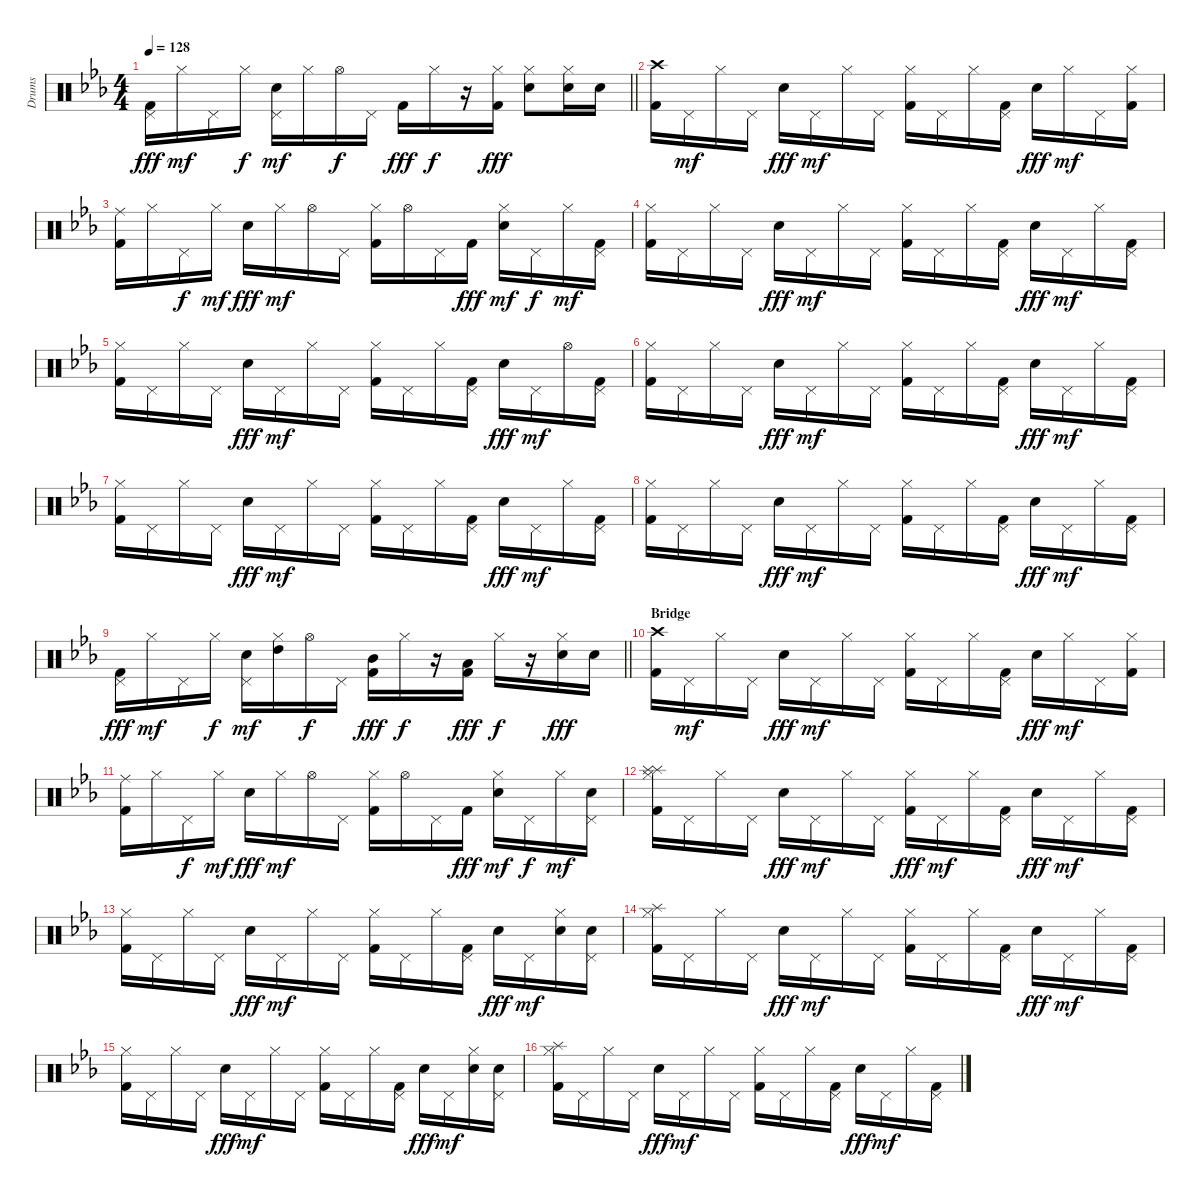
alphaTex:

\track ("Drums" "Drums") {instrument percussion}
\staff {score}
\articulation defaults
\ts (4 4)
\tempo 128
\clef neutral
\barLineRight lightlight
\ks cminor
("Kick (hit) 2" "Pedal Hi-Hat (hit)").16{dy fff} "Hi-Hat (closed)".16{dy mf} "Pedal Hi-Hat (hit)".16 "Hi-Hat (closed)".16{dy f} ("Electric Snare (hit)" "Pedal Hi-Hat (hit)").16{dy mf} "Hi-Hat (closed)".16 "Hi-Hat (open)".16{dy f} "Pedal Hi-Hat (hit)".16 "Kick (hit) 2".16{dy fff} "Hi-Hat (closed)".16{dy f} r.16 ("Kick (hit) 2" "Hi-Hat (closed)").16{dy fff} ("Electric Snare (hit)" "Hi-Hat (closed)").8 ("Electric Snare (hit)" "Hi-Hat (closed)").16 "Electric Snare (hit)".16 |
("Kick (hit) 2" "Crash high (hit)").16 "Pedal Hi-Hat (hit)".16{dy mf} "Hi-Hat (closed)".16 "Pedal Hi-Hat (hit)".16 "Electric Snare (hit)".16{dy fff} "Pedal Hi-Hat (hit)".16{dy mf} "Hi-Hat (closed)".16 "Pedal Hi-Hat (hit)".16 ("Kick (hit) 2" "Hi-Hat (closed)").16 "Pedal Hi-Hat (hit)".16 "Hi-Hat (closed)".16 ("Kick (hit) 2" "Pedal Hi-Hat (hit)").16 "Electric Snare (hit)".16{dy fff} "Hi-Hat (closed)".16{dy mf} "Pedal Hi-Hat (hit)".16 ("Kick (hit) 2" "Hi-Hat (closed)").16 |
("Kick (hit) 2" "Ride (middle)").16 "Hi-Hat (closed)".16 "Pedal Hi-Hat (hit)".16{dy f} "Hi-Hat (closed)".16{dy mf} "Electric Snare (hit)".16{dy fff} "Hi-Hat (closed)".16{dy mf} "Hi-Hat (open)".16 "Pedal Hi-Hat (hit)".16 ("Kick (hit) 2" "Hi-Hat (closed)").16 "Hi-Hat (open)".16 "Pedal Hi-Hat (hit)".16 "Kick (hit) 2".16{dy fff} ("Electric Snare (hit)" "Hi-Hat (closed)").16{dy mf} "Pedal Hi-Hat (hit)".16{dy f} "Hi-Hat (closed)".16{dy mf} ("Kick (hit) 2" "Pedal Hi-Hat (hit)").16 |
("Kick (hit) 2" "Hi-Hat (closed)").16 "Pedal Hi-Hat (hit)".16 "Hi-Hat (closed)".16 "Pedal Hi-Hat (hit)".16 "Electric Snare (hit)".16{dy fff} "Pedal Hi-Hat (hit)".16{dy mf} "Hi-Hat (closed)".16 "Pedal Hi-Hat (hit)".16 ("Kick (hit) 2" "Hi-Hat (closed)").16 "Pedal Hi-Hat (hit)".16 "Hi-Hat (closed)".16 ("Kick (hit) 2" "Pedal Hi-Hat (hit)").16 "Electric Snare (hit)".16{dy fff} "Pedal Hi-Hat (hit)".16{dy mf} "Hi-Hat (closed)".16 ("Kick (hit) 2" "Pedal Hi-Hat (hit)").16 |
("Kick (hit) 2" "Hi-Hat (closed)").16 "Pedal Hi-Hat (hit)".16 "Hi-Hat (closed)".16 "Pedal Hi-Hat (hit)".16 "Electric Snare (hit)".16{dy fff} "Pedal Hi-Hat (hit)".16{dy mf} "Hi-Hat (closed)".16 "Pedal Hi-Hat (hit)".16 ("Kick (hit) 2" "Hi-Hat (closed)").16 "Pedal Hi-Hat (hit)".16 "Hi-Hat (closed)".16 ("Kick (hit) 2" "Pedal Hi-Hat (hit)").16 "Electric Snare (hit)".16{dy fff} "Pedal Hi-Hat (hit)".16{dy mf} "Hi-Hat (open)".16 ("Kick (hit) 2" "Pedal Hi-Hat (hit)").16 |
("Kick (hit) 2" "Hi-Hat (closed)").16 "Pedal Hi-Hat (hit)".16 "Hi-Hat (closed)".16 "Pedal Hi-Hat (hit)".16 "Electric Snare (hit)".16{dy fff} "Pedal Hi-Hat (hit)".16{dy mf} "Hi-Hat (closed)".16 "Pedal Hi-Hat (hit)".16 ("Kick (hit) 2" "Hi-Hat (closed)").16 "Pedal Hi-Hat (hit)".16 "Hi-Hat (closed)".16 ("Kick (hit) 2" "Pedal Hi-Hat (hit)").16 "Electric Snare (hit)".16{dy fff} "Pedal Hi-Hat (hit)".16{dy mf} "Hi-Hat (closed)".16 ("Kick (hit) 2" "Pedal Hi-Hat (hit)").16 |
("Kick (hit) 2" "Hi-Hat (closed)").16 "Pedal Hi-Hat (hit)".16 "Hi-Hat (closed)".16 "Pedal Hi-Hat (hit)".16 "Electric Snare (hit)".16{dy fff} "Pedal Hi-Hat (hit)".16{dy mf} "Hi-Hat (closed)".16 "Pedal Hi-Hat (hit)".16 ("Kick (hit) 2" "Hi-Hat (closed)").16 "Pedal Hi-Hat (hit)".16 "Hi-Hat (closed)".16 ("Kick (hit) 2" "Pedal Hi-Hat (hit)").16 "Electric Snare (hit)".16{dy fff} "Pedal Hi-Hat (hit)".16{dy mf} "Hi-Hat (closed)".16 ("Kick (hit) 2" "Pedal Hi-Hat (hit)").16 |
("Kick (hit) 2" "Hi-Hat (closed)").16 "Pedal Hi-Hat (hit)".16 "Hi-Hat (closed)".16 "Pedal Hi-Hat (hit)".16 "Electric Snare (hit)".16{dy fff} "Pedal Hi-Hat (hit)".16{dy mf} "Hi-Hat (closed)".16 "Pedal Hi-Hat (hit)".16 ("Kick (hit) 2" "Hi-Hat (closed)").16 "Pedal Hi-Hat (hit)".16 "Hi-Hat (closed)".16 ("Kick (hit) 2" "Pedal Hi-Hat (hit)").16 "Electric Snare (hit)".16{dy fff} "Pedal Hi-Hat (hit)".16{dy mf} "Hi-Hat (closed)".16 ("Kick (hit) 2" "Pedal Hi-Hat (hit)").16 |
\barLineRight lightlight
("Kick (hit) 2" "Pedal Hi-Hat (hit)").16{dy fff} "Hi-Hat (closed)".16{dy mf} "Pedal Hi-Hat (hit)".16 "Hi-Hat (closed)".16{dy f} ("Electric Snare (hit)" "Pedal Hi-Hat (hit)").16{dy mf} ("High Tom (hit)" "Hi-Hat (closed)").16 "Hi-Hat (open)".16{dy f} "Pedal Hi-Hat (hit)".16 ("Mid Tom (hit)" "Kick (hit) 2").16{dy fff} "Hi-Hat (closed)".16{dy f} r.16 ("Low Tom (hit)" "Kick (hit) 2").16{dy fff} "Hi-Hat (closed)".16{dy f} r.16 ("Electric Snare (hit)" "Hi-Hat (closed)").16{dy fff} "Electric Snare (hit)".16 |
\section ("" "Bridge")
("Kick (hit) 2" "Crash high (hit)").16 "Pedal Hi-Hat (hit)".16{dy mf} "Hi-Hat (closed)".16 "Pedal Hi-Hat (hit)".16 "Electric Snare (hit)".16{dy fff} "Pedal Hi-Hat (hit)".16{dy mf} "Hi-Hat (closed)".16 "Pedal Hi-Hat (hit)".16 ("Kick (hit) 2" "Hi-Hat (closed)").16 "Pedal Hi-Hat (hit)".16 "Hi-Hat (closed)".16 ("Kick (hit) 2" "Pedal Hi-Hat (hit)").16 "Electric Snare (hit)".16{dy fff} "Hi-Hat (closed)".16{dy mf} "Pedal Hi-Hat (hit)".16 ("Kick (hit) 2" "Hi-Hat (closed)").16 |
("Kick (hit) 2" "Ride (middle)").16 "Hi-Hat (closed)".16 "Pedal Hi-Hat (hit)".16{dy f} "Hi-Hat (closed)".16{dy mf} "Electric Snare (hit)".16{dy fff} "Hi-Hat (closed)".16{dy mf} "Hi-Hat (open)".16 "Pedal Hi-Hat (hit)".16 ("Kick (hit) 2" "Hi-Hat (closed)").16 "Hi-Hat (open)".16 "Pedal Hi-Hat (hit)".16 "Kick (hit) 2".16{dy fff} ("Electric Snare (hit)" "Hi-Hat (closed)").16{dy mf} "Pedal Hi-Hat (hit)".16{dy f} "Hi-Hat (closed)".16{dy mf} ("Electric Snare (hit)" "Pedal Hi-Hat (hit)").16 |
("Splash (hit)" "Kick (hit) 2" "Splash (hit)" "Hi-Hat (closed)").16 "Pedal Hi-Hat (hit)".16 "Hi-Hat (closed)".16 "Pedal Hi-Hat (hit)".16 "Electric Snare (hit)".16{dy fff} "Pedal Hi-Hat (hit)".16{dy mf} "Hi-Hat (closed)".16 "Pedal Hi-Hat (hit)".16 ("Hi-Hat (closed)" "Kick (hit) 2").16{dy fff} "Pedal Hi-Hat (hit)".16{dy mf} "Hi-Hat (closed)".16 ("Kick (hit) 2" "Pedal Hi-Hat (hit)").16 "Electric Snare (hit)".16{dy fff} "Pedal Hi-Hat (hit)".16{dy mf} "Hi-Hat (closed)".16 ("Kick (hit) 2" "Pedal Hi-Hat (hit)").16 |
("Kick (hit) 2" "Hi-Hat (closed)").16 "Pedal Hi-Hat (hit)".16 "Hi-Hat (closed)".16 "Pedal Hi-Hat (hit)".16 "Electric Snare (hit)".16{dy fff} "Pedal Hi-Hat (hit)".16{dy mf} "Hi-Hat (closed)".16 "Pedal Hi-Hat (hit)".16 ("Kick (hit) 2" "Hi-Hat (closed)").16 "Pedal Hi-Hat (hit)".16 "Hi-Hat (closed)".16 ("Kick (hit) 2" "Pedal Hi-Hat (hit)").16 "Electric Snare (hit)".16{dy fff} "Pedal Hi-Hat (hit)".16{dy mf} ("Electric Snare (hit)" "Hi-Hat (closed)").16 ("Electric Snare (hit)" "Pedal Hi-Hat (hit)").16 |
("Splash (hit)" "Kick (hit) 2" "Hi-Hat (closed)").16 "Pedal Hi-Hat (hit)".16 "Hi-Hat (closed)".16 "Pedal Hi-Hat (hit)".16 "Electric Snare (hit)".16{dy fff} "Pedal Hi-Hat (hit)".16{dy mf} "Hi-Hat (closed)".16 "Pedal Hi-Hat (hit)".16 ("Kick (hit) 2" "Hi-Hat (closed)").16 "Pedal Hi-Hat (hit)".16 "Hi-Hat (closed)".16 ("Kick (hit) 2" "Pedal Hi-Hat (hit)").16 "Electric Snare (hit)".16{dy fff} "Pedal Hi-Hat (hit)".16{dy mf} "Hi-Hat (closed)".16 ("Kick (hit) 2" "Pedal Hi-Hat (hit)").16 |
("Kick (hit) 2" "Hi-Hat (closed)").16 "Pedal Hi-Hat (hit)".16 "Hi-Hat (closed)".16 "Pedal Hi-Hat (hit)".16 "Electric Snare (hit)".16{dy fff} "Pedal Hi-Hat (hit)".16{dy mf} "Hi-Hat (closed)".16 "Pedal Hi-Hat (hit)".16 ("Kick (hit) 2" "Hi-Hat (closed)").16 "Pedal Hi-Hat (hit)".16 "Hi-Hat (closed)".16 ("Kick (hit) 2" "Pedal Hi-Hat (hit)").16 "Electric Snare (hit)".16{dy fff} "Pedal Hi-Hat (hit)".16{dy mf} ("Electric Snare (hit)" "Hi-Hat (closed)").16 ("Electric Snare (hit)" "Pedal Hi-Hat (hit)").16 |
("Splash (hit)" "Kick (hit) 2" "Hi-Hat (closed)").16 "Pedal Hi-Hat (hit)".16 "Hi-Hat (closed)".16 "Pedal Hi-Hat (hit)".16 "Electric Snare (hit)".16{dy fff} "Pedal Hi-Hat (hit)".16{dy mf} "Hi-Hat (closed)".16 "Pedal Hi-Hat (hit)".16 ("Kick (hit) 2" "Hi-Hat (closed)").16 "Pedal Hi-Hat (hit)".16 "Hi-Hat (closed)".16 ("Kick (hit) 2" "Pedal Hi-Hat (hit)").16 "Electric Snare (hit)".16{dy fff} "Pedal Hi-Hat (hit)".16{dy mf} "Hi-Hat (closed)".16 ("Kick (hit) 2" "Pedal Hi-Hat (hit)").16
